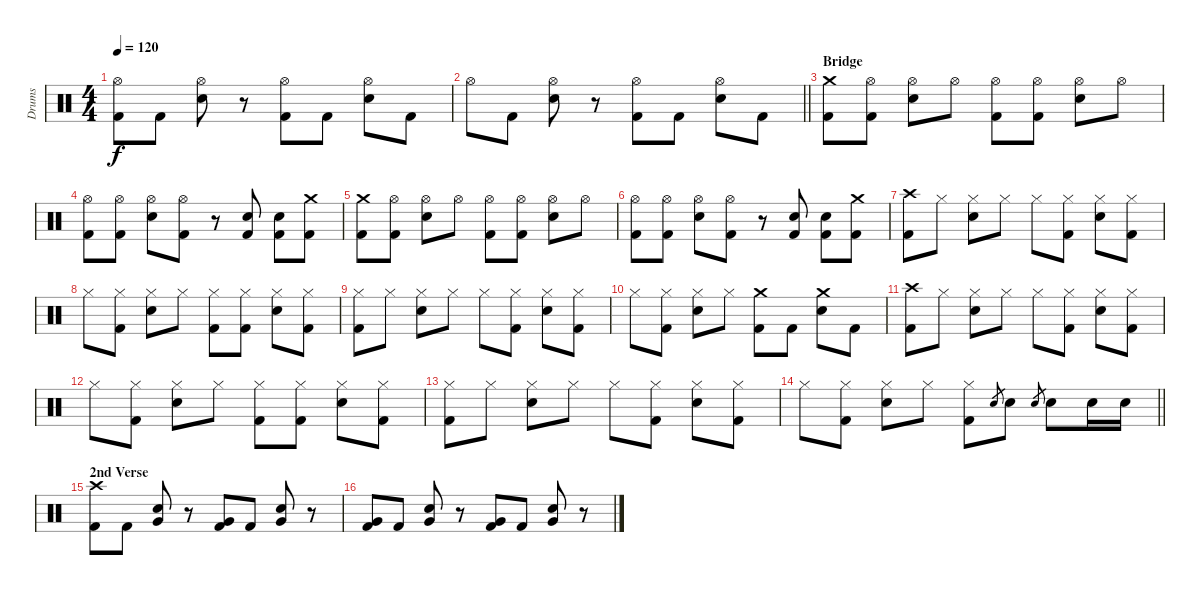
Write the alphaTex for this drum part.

\track ("Drums" "Drums") {instrument percussion}
\staff {score}
\articulation defaults
\ts (4 4)
\tempo 120
\clef neutral
\ks c
("Hi-Hat (open)" "Kick (hit) 2").8{dy f} "Kick (hit) 2".8 ("Hi-Hat (open)" "Snare (hit) 2").8 r.8 ("Hi-Hat (open)" "Kick (hit) 2").8 "Kick (hit) 2".8 ("Hi-Hat (open)" "Snare (hit) 2").8 "Kick (hit) 2".8 |
\barLineRight lightlight "Hi-Hat (open)".8 "Kick (hit) 2".8
("Hi-Hat (open)" "Snare (hit) 2").8 r.8 ("Hi-Hat (open)" "Kick (hit) 2").8 "Kick (hit) 2".8 ("Hi-Hat (open)" "Snare (hit) 2").8 "Kick (hit) 2".8 |
\section ("" "Bridge")
("Crash medium (hit)" "Kick (hit) 2").8 ("Hi-Hat (open)" "Kick (hit) 2").8 ("Hi-Hat (open)" "Snare (hit) 2").8 "Hi-Hat (open)".8 ("Hi-Hat (open)" "Kick (hit) 2").8 ("Hi-Hat (open)" "Kick (hit) 2").8 ("Hi-Hat (open)" "Snare (hit) 2").8 "Hi-Hat (open)".8 |
("Hi-Hat (open)" "Kick (hit) 2").8 ("Hi-Hat (open)" "Kick (hit) 2").8 ("Hi-Hat (open)" "Snare (hit) 2").8 ("Hi-Hat (open)" "Kick (hit) 2").8 r.8 ("Snare (hit) 2" "Kick (hit) 2").8 ("Snare (hit) 2" "Kick (hit) 2").8 ("Crash medium (hit)" "Kick (hit) 2").8 |
("Crash medium (hit)" "Kick (hit) 2").8 ("Hi-Hat (open)" "Kick (hit) 2").8 ("Hi-Hat (open)" "Snare (hit) 2").8 "Hi-Hat (open)".8 ("Hi-Hat (open)" "Kick (hit) 2").8 ("Hi-Hat (open)" "Kick (hit) 2").8 ("Hi-Hat (open)" "Snare (hit) 2").8 "Hi-Hat (open)".8 |
("Hi-Hat (open)" "Kick (hit) 2").8 ("Hi-Hat (open)" "Kick (hit) 2").8 ("Hi-Hat (open)" "Snare (hit) 2").8 ("Hi-Hat (open)" "Kick (hit) 2").8 r.8 ("Snare (hit) 2" "Kick (hit) 2").8 ("Snare (hit) 2" "Kick (hit) 2").8 ("Crash medium (hit)" "Kick (hit) 2").8 |
("Crash high (hit)" "Kick (hit) 2").8 "Hi-Hat (closed)".8 ("Hi-Hat (closed)" "Snare (hit) 2").8 "Hi-Hat (closed)".8 "Hi-Hat (closed)".8 ("Hi-Hat (closed)" "Kick (hit) 2").8 ("Hi-Hat (closed)" "Snare (hit) 2").8 ("Hi-Hat (closed)" "Kick (hit) 2").8 |
"Hi-Hat (closed)".8 ("Hi-Hat (closed)" "Kick (hit) 2").8 ("Hi-Hat (closed)" "Snare (hit) 2").8 "Hi-Hat (closed)".8 ("Hi-Hat (closed)" "Kick (hit) 2").8 ("Hi-Hat (closed)" "Kick (hit) 2").8 ("Hi-Hat (closed)" "Snare (hit) 2").8 ("Hi-Hat (closed)" "Kick (hit) 2").8 |
("Hi-Hat (closed)" "Kick (hit) 2").8 "Hi-Hat (closed)".8 ("Hi-Hat (closed)" "Snare (hit) 2").8 "Hi-Hat (closed)".8 "Hi-Hat (closed)".8 ("Hi-Hat (closed)" "Kick (hit) 2").8 ("Hi-Hat (closed)" "Snare (hit) 2").8 ("Hi-Hat (closed)" "Kick (hit) 2").8 |
"Hi-Hat (closed)".8 ("Hi-Hat (closed)" "Kick (hit) 2").8 ("Hi-Hat (closed)" "Snare (hit) 2").8 "Hi-Hat (closed)".8 ("Crash medium (hit)" "Kick (hit) 2").8 "Kick (hit) 2".8 ("Crash medium (hit)" "Snare (hit) 2").8 "Kick (hit) 2".8 |
("Crash high (hit)" "Kick (hit) 2").8 "Hi-Hat (closed)".8 ("Hi-Hat (closed)" "Snare (hit) 2").8 "Hi-Hat (closed)".8 "Hi-Hat (closed)".8 ("Hi-Hat (closed)" "Kick (hit) 2").8 ("Hi-Hat (closed)" "Snare (hit) 2").8 ("Hi-Hat (closed)" "Kick (hit) 2").8 |
"Hi-Hat (closed)".8 ("Hi-Hat (closed)" "Kick (hit) 2").8 ("Hi-Hat (closed)" "Snare (hit) 2").8 "Hi-Hat (closed)".8 ("Hi-Hat (closed)" "Kick (hit) 2").8 ("Hi-Hat (closed)" "Kick (hit) 2").8 ("Hi-Hat (closed)" "Snare (hit) 2").8 ("Hi-Hat (closed)" "Kick (hit) 2").8 |
("Hi-Hat (closed)" "Kick (hit) 2").8 "Hi-Hat (closed)".8 ("Hi-Hat (closed)" "Snare (hit) 2").8 "Hi-Hat (closed)".8 "Hi-Hat (closed)".8 ("Hi-Hat (closed)" "Kick (hit) 2").8 ("Hi-Hat (closed)" "Snare (hit) 2").8 ("Hi-Hat (closed)" "Kick (hit) 2").8 |
\barLineRight lightlight "Hi-Hat (closed)".8
("Hi-Hat (closed)" "Kick (hit) 2").8 ("Hi-Hat (closed)" "Snare (hit) 2").8 "Hi-Hat (closed)".8 ("Hi-Hat (closed)" "Kick (hit) 2").8 "Snare (hit) 2".8{gr} "Snare (hit) 2".8 "Snare (hit) 2".8{gr} "Snare (hit) 2".8 "Snare (hit) 2".16 "Snare (hit) 2".16 |
\section ("" "2nd Verse")
("Crash high (hit)" "Kick (hit) 2").8 "Kick (hit) 2".8 ("Very Low Tom (hit)" "Snare (hit) 2").8 r.8 ("Very Low Tom (hit)" "Kick (hit) 2").8 "Kick (hit) 2".8 ("Very Low Tom (hit)" "Snare (hit) 2").8 r.8 |
("Very Low Tom (hit)" "Kick (hit) 2").8 "Kick (hit) 2".8 ("Very Low Tom (hit)" "Snare (hit) 2").8 r.8 ("Very Low Tom (hit)" "Kick (hit) 2").8 "Kick (hit) 2".8 ("Very Low Tom (hit)" "Snare (hit) 2").8 r.8
